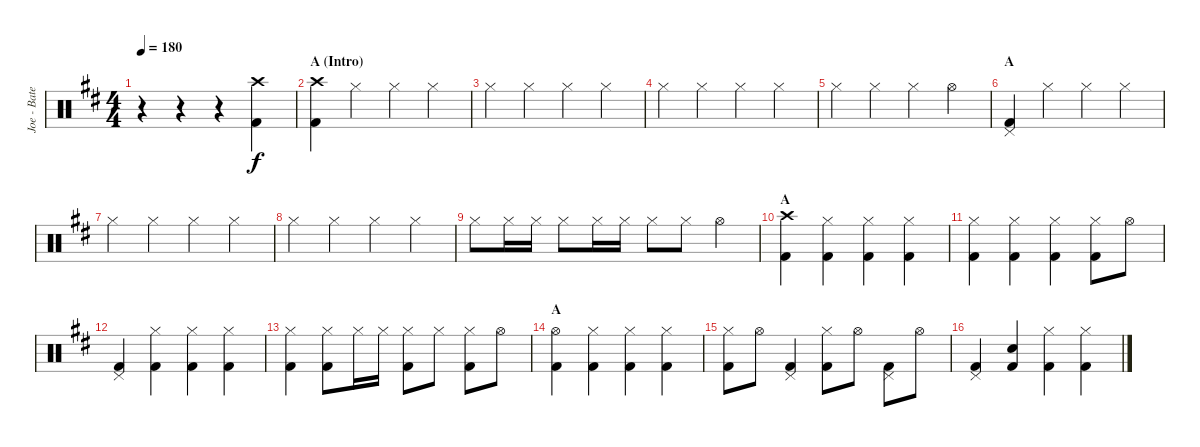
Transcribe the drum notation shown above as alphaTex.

\track ("Joe - Batería -" "Joe - Bate") {instrument percussion}
\staff {score}
\articulation defaults
\ts (4 4)
\tempo 180
\clef neutral
\ks bminor
r.4{dy f} r.4 r.4 ("Crash high (hit)" "Kick (hit) 2").4 |
\section ("" "A (Intro)")
("Crash high (hit)" "Kick (hit) 2").4 "Hi-Hat (closed)".4 "Hi-Hat (closed)".4 "Hi-Hat (closed)".4 |
"Hi-Hat (closed)".4 "Hi-Hat (closed)".4 "Hi-Hat (closed)".4 "Hi-Hat (closed)".4 |
"Hi-Hat (closed)".4 "Hi-Hat (closed)".4 "Hi-Hat (closed)".4 "Hi-Hat (closed)".4 |
"Hi-Hat (closed)".4 "Hi-Hat (closed)".4 "Hi-Hat (closed)".4 "Hi-Hat (open)".4 |
\section ("" "A")
("Pedal Hi-Hat (hit)" "Kick (hit) 2").4 "Hi-Hat (closed)".4 "Hi-Hat (closed)".4 "Hi-Hat (closed)".4 |
"Hi-Hat (closed)".4 "Hi-Hat (closed)".4 "Hi-Hat (closed)".4 "Hi-Hat (closed)".4 |
"Hi-Hat (closed)".4 "Hi-Hat (closed)".4 "Hi-Hat (closed)".4 "Hi-Hat (closed)".4 |
"Hi-Hat (closed)".8 "Hi-Hat (closed)".16 "Hi-Hat (closed)".16 "Hi-Hat (closed)".8 "Hi-Hat (closed)".16 "Hi-Hat (closed)".16 "Hi-Hat (closed)".8 "Hi-Hat (closed)".8 "Hi-Hat (open)".4 |
\section ("" "A")
("Crash high (hit)" "Kick (hit) 2").4 ("Hi-Hat (closed)" "Kick (hit) 2").4 ("Hi-Hat (closed)" "Kick (hit) 2").4 ("Hi-Hat (closed)" "Kick (hit) 2").4 |
("Hi-Hat (closed)" "Kick (hit) 2").4 ("Hi-Hat (closed)" "Kick (hit) 2").4 ("Hi-Hat (closed)" "Kick (hit) 2").4 ("Hi-Hat (closed)" "Kick (hit) 2").8 "Hi-Hat (open)".8 |
("Pedal Hi-Hat (hit)" "Kick (hit) 2").4 ("Hi-Hat (closed)" "Kick (hit) 2").4 ("Hi-Hat (closed)" "Kick (hit) 2").4 ("Hi-Hat (closed)" "Kick (hit) 2").4 |
("Hi-Hat (closed)" "Kick (hit) 2").4 ("Hi-Hat (closed)" "Kick (hit) 2").8 "Hi-Hat (closed)".16 "Hi-Hat (closed)".16 ("Hi-Hat (closed)" "Kick (hit) 2").8 "Hi-Hat (closed)".8 ("Hi-Hat (closed)" "Kick (hit) 2").8 "Hi-Hat (open)".8 |
\section ("" "A")
("Hi-Hat (open)" "Kick (hit) 2").4 ("Hi-Hat (closed)" "Kick (hit) 2").4 ("Hi-Hat (closed)" "Kick (hit) 2").4 ("Hi-Hat (closed)" "Kick (hit) 2").4 |
("Hi-Hat (closed)" "Kick (hit) 2").8 "Hi-Hat (open)".8 ("Pedal Hi-Hat (hit)" "Kick (hit) 2").4 ("Hi-Hat (closed)" "Kick (hit) 2").8 "Hi-Hat (open)".8 ("Pedal Hi-Hat (hit)" "Kick (hit) 2").8 "Hi-Hat (open)".8 |
("Pedal Hi-Hat (hit)" "Kick (hit) 2").4 ("Snare (hit)" "Kick (hit) 2").4 ("Hi-Hat (closed)" "Kick (hit) 2").4 ("Hi-Hat (closed)" "Kick (hit) 2").4
